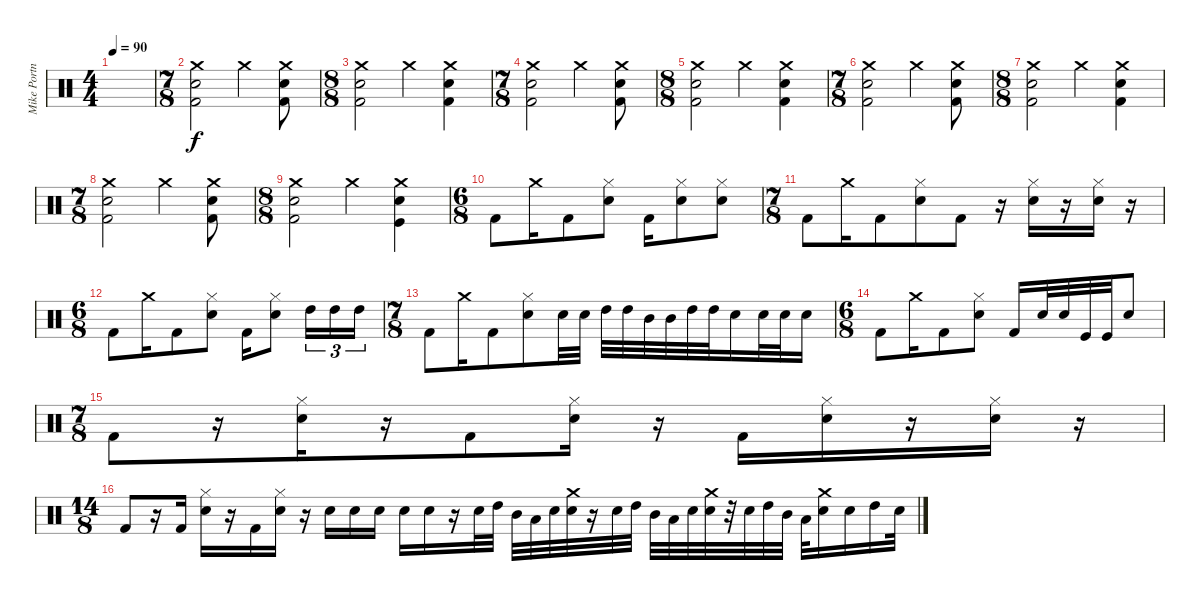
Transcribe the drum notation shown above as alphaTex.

\track ("Mike Portnoy" "Mike Portn") {instrument percussion}
\staff {score}
\articulation defaults
\ts (4 4)
\tempo 90
\clef neutral
\ks c
|
\ts (7 8)
("Crash medium (hit)" "Electric Snare (hit)" "Kick (hit) 2").2 "Crash medium (hit)".4 ("Crash medium (hit)" "Electric Snare (hit)" "Kick (hit) 2").8 |
\ts (8 8)
("Crash medium (hit)" "Electric Snare (hit)" "Kick (hit) 2").2 "Crash medium (hit)".4 ("Crash medium (hit)" "Electric Snare (hit)" "Kick (hit) 2").4 |
\ts (7 8)
("Crash medium (hit)" "Electric Snare (hit)" "Kick (hit) 2").2 "Crash medium (hit)".4 ("Crash medium (hit)" "Electric Snare (hit)" "Kick (hit) 2").8 |
\ts (8 8)
("Crash medium (hit)" "Electric Snare (hit)" "Kick (hit) 2").2 "Crash medium (hit)".4 ("Crash medium (hit)" "Electric Snare (hit)" "Kick (hit) 2").4 |
\ts (7 8)
("Crash medium (hit)" "Electric Snare (hit)" "Kick (hit) 2").2 "Crash medium (hit)".4 ("Crash medium (hit)" "Electric Snare (hit)" "Kick (hit) 2").8 |
\ts (8 8)
("Crash medium (hit)" "Electric Snare (hit)" "Kick (hit) 2").2 "Crash medium (hit)".4 ("Crash medium (hit)" "Electric Snare (hit)" "Kick (hit) 2").4 |
\ts (7 8)
("Crash medium (hit)" "Electric Snare (hit)" "Kick (hit) 2").2 "Crash medium (hit)".4 ("Crash medium (hit)" "Electric Snare (hit)" "Kick (hit) 2").8 |
\ts (8 8)
("Crash medium (hit)" "Electric Snare (hit)" "Kick (hit) 2").2 "Crash medium (hit)".4 ("Crash medium (hit)" "Electric Snare (hit)" "Kick (hit)").4 |
\ts (6 8)
"Kick (hit) 2".8 "Crash medium (hit)".16 "Kick (hit) 2".8 ("Hi-Hat (closed)" "Electric Snare (hit)").8 "Kick (hit) 2".16 ("Hi-Hat (closed)" "Electric Snare (hit)").8 ("Hi-Hat (closed)" "Electric Snare (hit)").8 |
\ts (7 8)
"Kick (hit) 2".8 "Crash medium (hit)".16 "Kick (hit) 2".8 ("Hi-Hat (closed)" "Electric Snare (hit)").8 "Kick (hit) 2".8 r.16 ("Hi-Hat (closed)" "Electric Snare (hit)").16 r.16 ("Hi-Hat (closed)" "Electric Snare (hit)").16 r.16 |
\ts (6 8)
"Kick (hit) 2".8 "Crash medium (hit)".16 "Kick (hit) 2".8 ("Hi-Hat (closed)" "Electric Snare (hit)").8 "Kick (hit) 2".16 ("Hi-Hat (closed)" "Electric Snare (hit)").8 "High Tom (hit)".16{tu (3 2)} "High Tom (hit)".16{tu (3 2)} "High Tom (hit)".16{tu (3 2)} |
\ts (7 8)
"Kick (hit) 2".8 "Crash medium (hit)".16 "Kick (hit) 2".8 ("Hi-Hat (closed)" "Electric Snare (hit)").8 "Electric Snare (hit)".32 "Electric Snare (hit)".32 "High Tom (hit)".32 "High Tom (hit)".32 "Mid Tom (hit)".32 "Mid Tom (hit)".32 "High Tom (hit)".32 "High Tom (hit)".32 "Electric Snare (hit)".16 "Electric Snare (hit)".32 "Electric Snare (hit)".32 "Electric Snare (hit)".16 |
\ts (6 8)
"Kick (hit) 2".8 "Crash medium (hit)".16 "Kick (hit) 2".8 ("Hi-Hat (closed)" "Electric Snare (hit)").8 "Kick (hit) 2".16 "Electric Snare (hit)".32 "Electric Snare (hit)".32 "Kick (hit)".32 "Kick (hit)".32 "Electric Snare (hit)".8 |
\ts (7 8)
"Kick (hit) 2".8 r.16 ("Hi-Hat (closed)" "Electric Snare (hit)").16 r.16 "Kick (hit) 2".8 ("Hi-Hat (closed)" "Electric Snare (hit)").16 r.16 "Kick (hit) 2".16 ("Hi-Hat (closed)" "Electric Snare (hit)").16 r.16 ("Hi-Hat (closed)" "Electric Snare (hit)").16 r.16 |
\ts (14 8)
"Kick (hit) 2".8 r.16 "Kick (hit) 2".16 ("Hi-Hat (closed)" "Electric Snare (hit)").16 r.16 "Kick (hit) 2".16 ("Hi-Hat (closed)" "Electric Snare (hit)").16 r.16 "Electric Snare (hit)".16 "Electric Snare (hit)".16 "Electric Snare (hit)".16 "Electric Snare (hit)".16 "Electric Snare (hit)".16 r.16 "Electric Snare (hit)".32 "High Tom (hit)".32 "Mid Tom (hit)".32 "Low Tom (hit)".32 "Electric Snare (hit)".32 ("Crash medium (hit)" "Electric Snare (hit)").32 r.16 "Electric Snare (hit)".32 "High Tom (hit)".32 "Mid Tom (hit)".32 "Low Tom (hit)".32 "Electric Snare (hit)".32 ("Crash medium (hit)" "Electric Snare (hit)").32 r.32 "Electric Snare (hit)".32 "High Tom (hit)".32 "Mid Tom (hit)".32 "Low Tom (hit)".32 ("Crash medium (hit)" "Electric Snare (hit)").16 "Electric Snare (hit)".16 "High Tom (hit)".16 "Electric Snare (hit)".32
